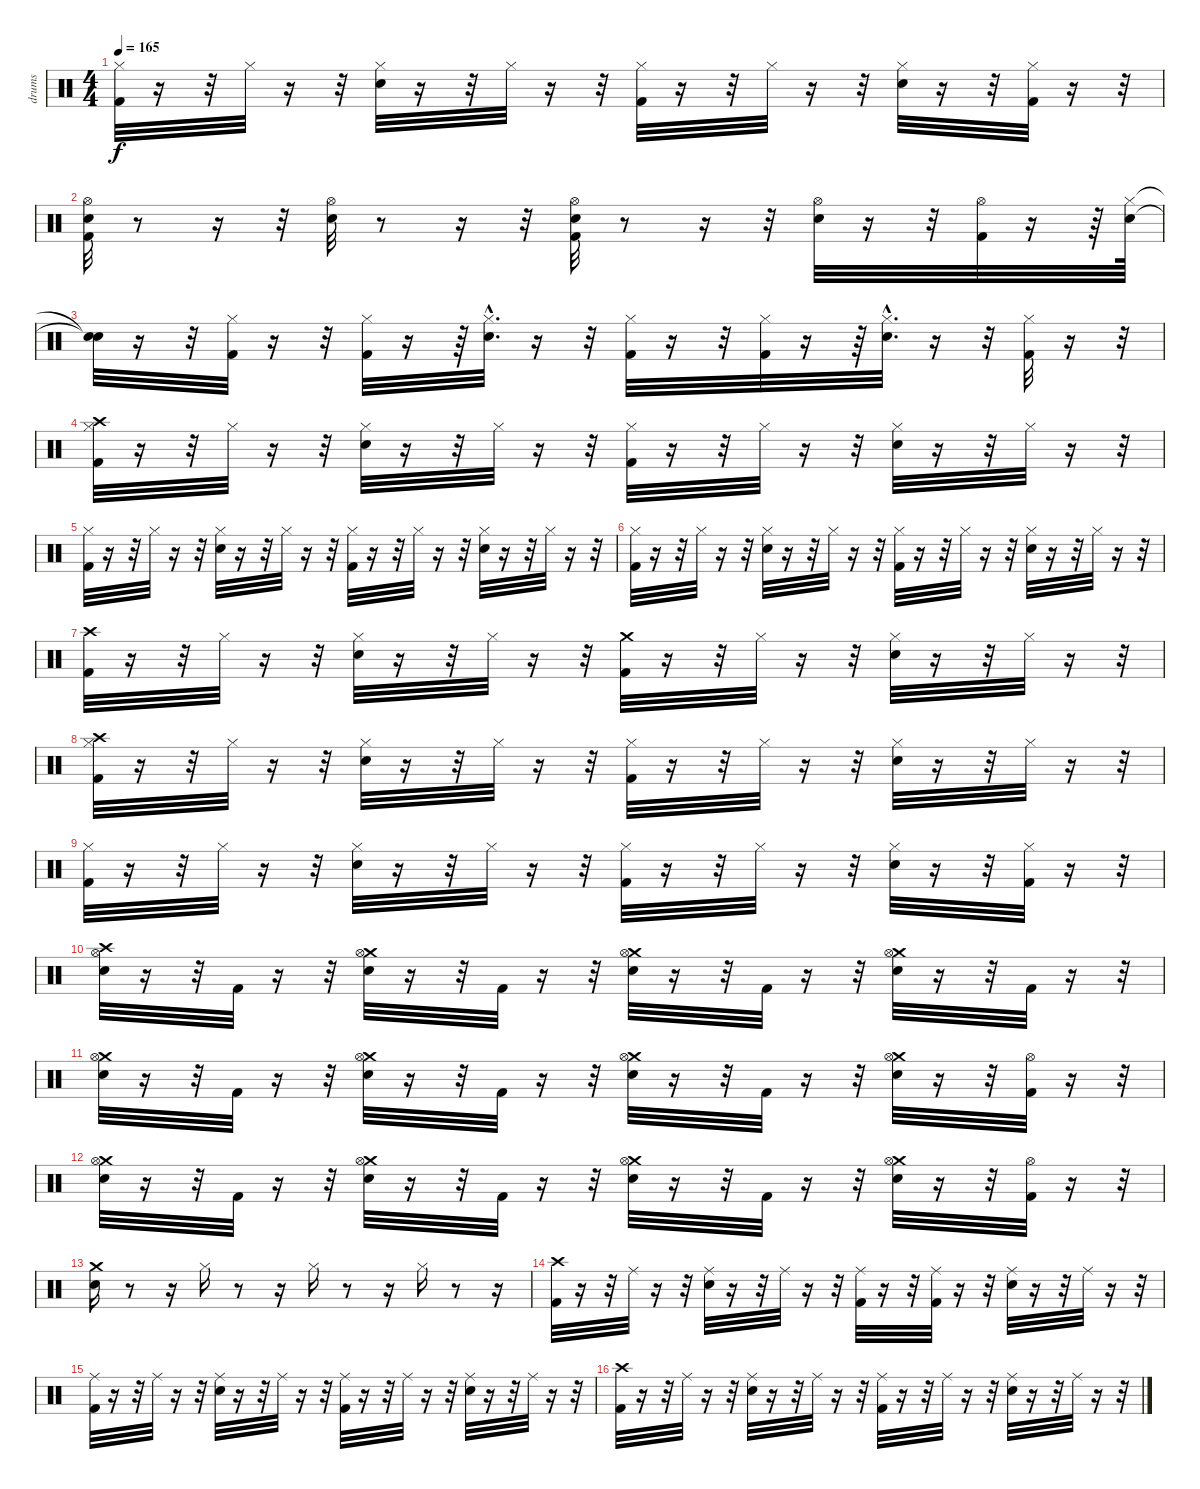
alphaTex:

\track ("drums" "drums") {instrument percussion}
\staff {score}
\articulation defaults
\ts (4 4)
\tempo 165
\clef neutral
\ks c
("Hi-Hat (closed)" "Kick (hit) 2").32{dy f} r.16 r.32 "Hi-Hat (closed)".32 r.16 r.32 ("Hi-Hat (closed)" "Electric Snare (hit)").32 r.16 r.32 "Hi-Hat (closed)".32 r.16 r.32 ("Hi-Hat (closed)" "Kick (hit) 2").32 r.16 r.32 "Hi-Hat (closed)".32 r.16 r.32 ("Hi-Hat (closed)" "Electric Snare (hit)").32 r.16 r.32 ("Kick (hit) 2" "Hi-Hat (closed)").32 r.16 r.32 |
("Electric Snare (hit)" "Hi-Hat (open)" "Kick (hit) 2").32 r.8 r.16 r.32 ("Electric Snare (hit)" "Hi-Hat (open)").32 r.8 r.16 r.32 ("Electric Snare (hit)" "Hi-Hat (open)" "Kick (hit) 2").32 r.8 r.16 r.32 ("Hi-Hat (open)" "Electric Snare (hit)").32 r.16 r.32 ("Kick (hit) 2" "Hi-Hat (open)").32 r.16 r.64 ("Hi-Hat (closed)" "Electric Snare (hit)").64 |
("Snare (hit)"{t} "Snare (hit)"{t}).32 r.16 r.32 ("Kick (hit) 2" "Hi-Hat (closed)").32 r.16 r.32 ("Hi-Hat (closed)" "Kick (hit) 2").32 r.16 r.64 ("Electric Snare (hit)"{hac} "Hi-Hat (closed)"{hac}).32{d} r.16 r.32 ("Hi-Hat (closed)" "Kick (hit) 2").32 r.16 r.32 ("Hi-Hat (closed)" "Kick (hit) 2").32 r.16 r.64 ("Hi-Hat (closed)"{hac} "Electric Snare (hit)"{hac}).32{d} r.16 r.32 ("Kick (hit) 2" "Hi-Hat (closed)").32 r.16 r.32 |
("Kick (hit) 2" "Hi-Hat (closed)" "Crash high (hit)").32 r.16 r.32 "Hi-Hat (closed)".32 r.16 r.32 ("Hi-Hat (closed)" "Electric Snare (hit)").32 r.16 r.32 "Hi-Hat (closed)".32 r.16 r.32 ("Hi-Hat (closed)" "Kick (hit) 2").32 r.16 r.32 "Hi-Hat (closed)".32 r.16 r.32 ("Hi-Hat (closed)" "Electric Snare (hit)").32 r.16 r.32 "Hi-Hat (closed)".32 r.16 r.32 |
("Hi-Hat (closed)" "Kick (hit) 2").32 r.16 r.32 "Hi-Hat (closed)".32 r.16 r.32 ("Hi-Hat (closed)" "Electric Snare (hit)").32 r.16 r.32 "Hi-Hat (closed)".32 r.16 r.32 ("Hi-Hat (closed)" "Kick (hit) 2").32 r.16 r.32 "Hi-Hat (closed)".32 r.16 r.32 ("Hi-Hat (closed)" "Electric Snare (hit)").32 r.16 r.32 "Hi-Hat (closed)".32 r.16 r.32 |
("Hi-Hat (closed)" "Kick (hit) 2").32 r.16 r.32 "Hi-Hat (closed)".32 r.16 r.32 ("Hi-Hat (closed)" "Electric Snare (hit)").32 r.16 r.32 "Hi-Hat (closed)".32 r.16 r.32 ("Hi-Hat (closed)" "Kick (hit) 2").32 r.16 r.32 "Hi-Hat (closed)".32 r.16 r.32 ("Hi-Hat (closed)" "Electric Snare (hit)").32 r.16 r.32 "Hi-Hat (closed)".32 r.16 r.32 |
("Crash high (hit)" "Kick (hit) 2").32 r.16 r.32 "Hi-Hat (closed)".32 r.16 r.32 ("Hi-Hat (closed)" "Electric Snare (hit)").32 r.16 r.32 "Hi-Hat (closed)".32 r.16 r.32 ("Crash medium (hit)" "Kick (hit) 2").32 r.16 r.32 "Hi-Hat (closed)".32 r.16 r.32 ("Hi-Hat (closed)" "Electric Snare (hit)").32 r.16 r.32 "Hi-Hat (closed)".32 r.16 r.32 |
("Crash high (hit)" "Hi-Hat (closed)" "Kick (hit) 2").32 r.16 r.32 "Hi-Hat (closed)".32 r.16 r.32 ("Hi-Hat (closed)" "Electric Snare (hit)").32 r.16 r.32 "Hi-Hat (closed)".32 r.16 r.32 ("Hi-Hat (closed)" "Kick (hit) 2").32 r.16 r.32 "Hi-Hat (closed)".32 r.16 r.32 ("Hi-Hat (closed)" "Electric Snare (hit)").32 r.16 r.32 "Hi-Hat (closed)".32 r.16 r.32 |
("Hi-Hat (closed)" "Kick (hit) 2").32 r.16 r.32 "Hi-Hat (closed)".32 r.16 r.32 ("Hi-Hat (closed)" "Electric Snare (hit)").32 r.16 r.32 "Hi-Hat (closed)".32 r.16 r.32 ("Hi-Hat (closed)" "Kick (hit) 2").32 r.16 r.32 "Hi-Hat (closed)".32 r.16 r.32 ("Hi-Hat (closed)" "Electric Snare (hit)").32 r.16 r.32 ("Kick (hit) 2" "Hi-Hat (closed)").32 r.16 r.32 |
("Electric Snare (hit)" "Crash high (hit)" "Hi-Hat (open)").32 r.16 r.32 "Kick (hit) 2".32 r.16 r.32 ("Crash medium (hit)" "Hi-Hat (open)" "Electric Snare (hit)").32 r.16 r.32 "Kick (hit) 2".32 r.16 r.32 ("Crash medium (hit)" "Electric Snare (hit)" "Hi-Hat (open)").32 r.16 r.32 "Kick (hit) 2".32 r.16 r.32 ("Electric Snare (hit)" "Crash medium (hit)" "Hi-Hat (open)").32 r.16 r.32 "Kick (hit) 2".32 r.16 r.32 |
("Crash medium (hit)" "Electric Snare (hit)" "Hi-Hat (open)").32 r.16 r.32 "Kick (hit) 2".32 r.16 r.32 ("Crash medium (hit)" "Hi-Hat (open)" "Electric Snare (hit)").32 r.16 r.32 "Kick (hit) 2".32 r.16 r.32 ("Crash medium (hit)" "Electric Snare (hit)" "Hi-Hat (open)").32 r.16 r.32 "Kick (hit) 2".32 r.16 r.32 ("Crash medium (hit)" "Hi-Hat (open)" "Electric Snare (hit)").32 r.16 r.32 ("Kick (hit) 2" "Hi-Hat (open)").32 r.16 r.32 |
("Crash medium (hit)" "Electric Snare (hit)" "Hi-Hat (open)").32 r.16 r.32 "Kick (hit) 2".32 r.16 r.32 ("Crash medium (hit)" "Hi-Hat (open)" "Electric Snare (hit)").32 r.16 r.32 "Kick (hit) 2".32 r.16 r.32 ("Crash medium (hit)" "Electric Snare (hit)" "Hi-Hat (open)").32 r.16 r.32 "Kick (hit) 2".32 r.16 r.32 ("Crash medium (hit)" "Hi-Hat (open)" "Electric Snare (hit)").32 r.16 r.32 ("Kick (hit) 2" "Hi-Hat (open)").32 r.16 r.32 |
("Crash medium (hit)" "Snare (hit) 2").16 r.8 r.16 "Hi-Hat (closed)".16 r.8 r.16 "Hi-Hat (closed)".16 r.8 r.16 "Hi-Hat (closed)".16 r.8 r.16 |
("Crash high (hit)" "Kick (hit) 2").32 r.16 r.32 "Ride (middle)".32 r.16 r.32 ("Ride (middle)" "Electric Snare (hit)").32 r.16 r.32 "Ride (middle)".32 r.16 r.32 ("Ride (middle)" "Kick (hit) 2").32 r.16 r.32 ("Ride (middle)" "Kick (hit) 2").32 r.16 r.32 ("Ride (middle)" "Electric Snare (hit)").32 r.16 r.32 "Ride (middle)".32 r.16 r.32 |
("Ride (middle)" "Kick (hit) 2").32 r.16 r.32 "Ride (middle)".32 r.16 r.32 ("Ride (middle)" "Electric Snare (hit)").32 r.16 r.32 "Ride (middle)".32 r.16 r.32 ("Ride (middle)" "Kick (hit) 2").32 r.16 r.32 "Ride (middle)".32 r.16 r.32 ("Ride (middle)" "Electric Snare (hit)").32 r.16 r.32 "Ride (middle)".32 r.16 r.32 |
("Crash high (hit)" "Kick (hit) 2").32 r.16 r.32 "Ride (middle)".32 r.16 r.32 ("Ride (middle)" "Electric Snare (hit)").32 r.16 r.32 "Ride (middle)".32 r.16 r.32 ("Ride (middle)" "Kick (hit) 2").32 r.16 r.32 "Ride (middle)".32 r.16 r.32 ("Ride (middle)" "Electric Snare (hit)").32 r.16 r.32 "Ride (middle)".32 r.16 r.32
